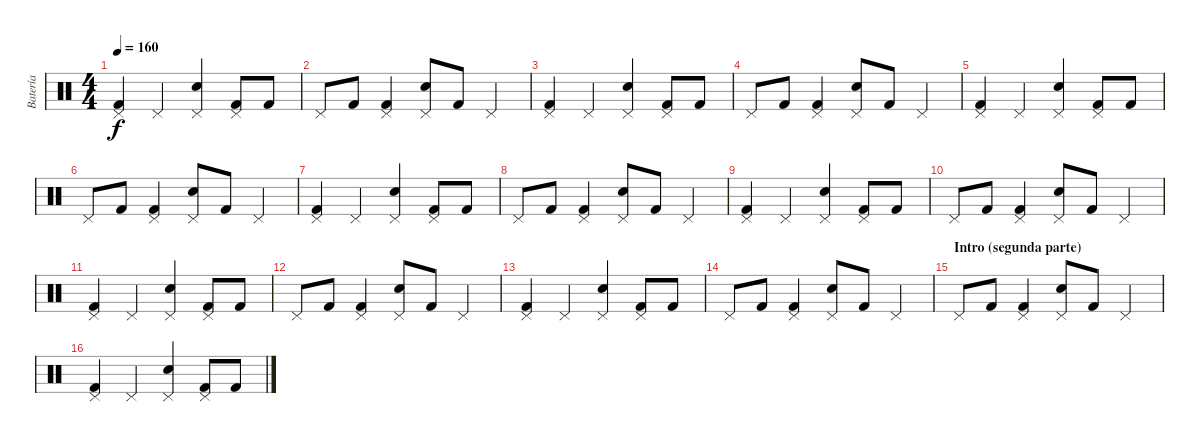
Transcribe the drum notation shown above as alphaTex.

\track ("Batería" "Batería") {instrument percussion}
\staff {score}
\articulation defaults
\ts (4 4)
\tempo 160
\clef neutral
\ks c
("Kick (hit) 2" "Pedal Hi-Hat (hit)").4{dy f} "Pedal Hi-Hat (hit)".4 ("Electric Snare (hit)" "Pedal Hi-Hat (hit)").4 ("Kick (hit) 2" "Pedal Hi-Hat (hit)").8 "Kick (hit) 2".8 |
"Pedal Hi-Hat (hit)".8 "Kick (hit) 2".8 ("Kick (hit) 2" "Pedal Hi-Hat (hit)").4 ("Electric Snare (hit)" "Pedal Hi-Hat (hit)").8 "Kick (hit) 2".8 "Pedal Hi-Hat (hit)".4 |
("Kick (hit) 2" "Pedal Hi-Hat (hit)").4 "Pedal Hi-Hat (hit)".4 ("Electric Snare (hit)" "Pedal Hi-Hat (hit)").4 ("Kick (hit) 2" "Pedal Hi-Hat (hit)").8 "Kick (hit) 2".8 |
"Pedal Hi-Hat (hit)".8 "Kick (hit) 2".8 ("Kick (hit) 2" "Pedal Hi-Hat (hit)").4 ("Electric Snare (hit)" "Pedal Hi-Hat (hit)").8 "Kick (hit) 2".8 "Pedal Hi-Hat (hit)".4 |
("Kick (hit) 2" "Pedal Hi-Hat (hit)").4 "Pedal Hi-Hat (hit)".4 ("Electric Snare (hit)" "Pedal Hi-Hat (hit)").4 ("Kick (hit) 2" "Pedal Hi-Hat (hit)").8 "Kick (hit) 2".8 |
"Pedal Hi-Hat (hit)".8 "Kick (hit) 2".8 ("Kick (hit) 2" "Pedal Hi-Hat (hit)").4 ("Electric Snare (hit)" "Pedal Hi-Hat (hit)").8 "Kick (hit) 2".8 "Pedal Hi-Hat (hit)".4 |
("Kick (hit) 2" "Pedal Hi-Hat (hit)").4 "Pedal Hi-Hat (hit)".4 ("Electric Snare (hit)" "Pedal Hi-Hat (hit)").4 ("Kick (hit) 2" "Pedal Hi-Hat (hit)").8 "Kick (hit) 2".8 |
"Pedal Hi-Hat (hit)".8 "Kick (hit) 2".8 ("Kick (hit) 2" "Pedal Hi-Hat (hit)").4 ("Electric Snare (hit)" "Pedal Hi-Hat (hit)").8 "Kick (hit) 2".8 "Pedal Hi-Hat (hit)".4 |
("Kick (hit) 2" "Pedal Hi-Hat (hit)").4 "Pedal Hi-Hat (hit)".4 ("Electric Snare (hit)" "Pedal Hi-Hat (hit)").4 ("Kick (hit) 2" "Pedal Hi-Hat (hit)").8 "Kick (hit) 2".8 |
"Pedal Hi-Hat (hit)".8 "Kick (hit) 2".8 ("Kick (hit) 2" "Pedal Hi-Hat (hit)").4 ("Electric Snare (hit)" "Pedal Hi-Hat (hit)").8 "Kick (hit) 2".8 "Pedal Hi-Hat (hit)".4 |
("Kick (hit) 2" "Pedal Hi-Hat (hit)").4 "Pedal Hi-Hat (hit)".4 ("Electric Snare (hit)" "Pedal Hi-Hat (hit)").4 ("Kick (hit) 2" "Pedal Hi-Hat (hit)").8 "Kick (hit) 2".8 |
"Pedal Hi-Hat (hit)".8 "Kick (hit) 2".8 ("Kick (hit) 2" "Pedal Hi-Hat (hit)").4 ("Electric Snare (hit)" "Pedal Hi-Hat (hit)").8 "Kick (hit) 2".8 "Pedal Hi-Hat (hit)".4 |
("Kick (hit) 2" "Pedal Hi-Hat (hit)").4 "Pedal Hi-Hat (hit)".4 ("Electric Snare (hit)" "Pedal Hi-Hat (hit)").4 ("Kick (hit) 2" "Pedal Hi-Hat (hit)").8 "Kick (hit) 2".8 |
"Pedal Hi-Hat (hit)".8 "Kick (hit) 2".8 ("Kick (hit) 2" "Pedal Hi-Hat (hit)").4 ("Electric Snare (hit)" "Pedal Hi-Hat (hit)").8 "Kick (hit) 2".8 "Pedal Hi-Hat (hit)".4 |
\section ("" "Intro (segunda parte)")
"Pedal Hi-Hat (hit)".8 "Kick (hit) 2".8 ("Kick (hit) 2" "Pedal Hi-Hat (hit)").4 ("Electric Snare (hit)" "Pedal Hi-Hat (hit)").8 "Kick (hit) 2".8 "Pedal Hi-Hat (hit)".4 |
("Kick (hit) 2" "Pedal Hi-Hat (hit)").4 "Pedal Hi-Hat (hit)".4 ("Electric Snare (hit)" "Pedal Hi-Hat (hit)").4 ("Kick (hit) 2" "Pedal Hi-Hat (hit)").8 "Kick (hit) 2".8
